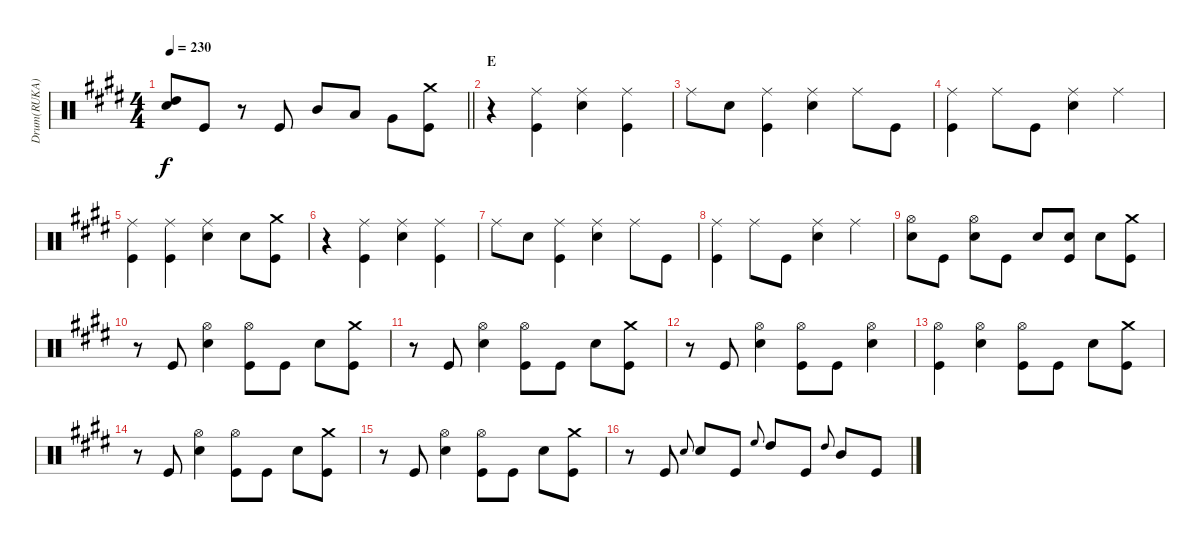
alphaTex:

\track ("Drum(RUKA)" "Drum(RUKA)") {instrument percussion}
\staff {score}
\articulation defaults
\ts (4 4)
\tempo 230
\clef neutral
\barLineRight lightlight
\ks e
("Electric Snare (hit)" "High Tom (hit)").8{dy f} "Kick (hit)".8 r.8 "Kick (hit)".8 "Mid Tom (hit)".8 "Low Tom (hit)".8 "Very Low Tom (hit)".8 ("Crash medium (hit)" "Kick (hit)").8 |
\section ("" "E")
r.4 ("Ride (middle)" "Kick (hit)").4 ("Ride (middle)" "Electric Snare (hit)").4 ("Ride (middle)" "Kick (hit)").4 |
"Ride (middle)".8 "Electric Snare (hit)".8 ("Ride (middle)" "Kick (hit)").4 ("Ride (middle)" "Electric Snare (hit)").4 "Ride (middle)".8 "Kick (hit)".8 |
("Ride (middle)" "Kick (hit)").4 "Ride (middle)".8 "Kick (hit)".8 ("Ride (middle)" "Electric Snare (hit)").4 "Ride (middle)".4 |
("Ride (middle)" "Kick (hit)").4 ("Ride (middle)" "Kick (hit)").4 ("Ride (middle)" "Electric Snare (hit)").4 "Electric Snare (hit)".8 ("Crash medium (hit)" "Kick (hit)").8 |
r.4 ("Ride (middle)" "Kick (hit)").4 ("Ride (middle)" "Electric Snare (hit)").4 ("Ride (middle)" "Kick (hit)").4 |
"Ride (middle)".8 "Electric Snare (hit)".8 ("Ride (middle)" "Kick (hit)").4 ("Ride (middle)" "Electric Snare (hit)").4 "Ride (middle)".8 "Kick (hit)".8 |
("Ride (middle)" "Kick (hit)").4 "Ride (middle)".8 "Kick (hit)".8 ("Ride (middle)" "Electric Snare (hit)").4 "Ride (middle)".4 |
("Hi-Hat (open)" "Electric Snare (hit)").8 "Kick (hit)".8 ("Hi-Hat (open)" "Electric Snare (hit)").8 "Kick (hit)".8 "Electric Snare (hit)".8 ("Electric Snare (hit)" "Kick (hit)").8 "Electric Snare (hit)".8 ("Crash medium (hit)" "Kick (hit)").8 |
r.8 "Kick (hit)".8 ("Hi-Hat (open)" "Electric Snare (hit)").4 ("Hi-Hat (open)" "Kick (hit)").8 "Kick (hit)".8 "Electric Snare (hit)".8 ("Crash medium (hit)" "Kick (hit)").8 |
r.8 "Kick (hit)".8 ("Hi-Hat (open)" "Electric Snare (hit)").4 ("Hi-Hat (open)" "Kick (hit)").8 "Kick (hit)".8 "Electric Snare (hit)".8 ("Crash medium (hit)" "Kick (hit)").8 |
r.8 "Kick (hit)".8 ("Hi-Hat (open)" "Electric Snare (hit)").4 ("Hi-Hat (open)" "Kick (hit)").8 "Kick (hit)".8 ("Hi-Hat (open)" "Electric Snare (hit)").4 |
("Hi-Hat (open)" "Kick (hit)").4 ("Hi-Hat (open)" "Electric Snare (hit)").4 ("Hi-Hat (open)" "Kick (hit)").8 "Kick (hit)".8 "Electric Snare (hit)".8 ("Crash medium (hit)" "Kick (hit)").8 |
r.8 "Kick (hit)".8 ("Hi-Hat (open)" "Electric Snare (hit)").4 ("Hi-Hat (open)" "Kick (hit)").8 "Kick (hit)".8 "Electric Snare (hit)".8 ("Crash medium (hit)" "Kick (hit)").8 |
r.8 "Kick (hit)".8 ("Hi-Hat (open)" "Electric Snare (hit)").4 ("Hi-Hat (open)" "Kick (hit)").8 "Kick (hit)".8 "Electric Snare (hit)".8 ("Crash medium (hit)" "Kick (hit)").8 |
r.8 "Kick (hit)".8 "Electric Snare (hit)".8{gr onbeat} "Electric Snare (hit)".8 "Kick (hit)".8 "High Floor Tom (hit)".8{gr onbeat} "High Tom (hit)".8 "Kick (hit)".8 "High Tom (hit)".8{gr onbeat} "Mid Tom (hit)".8 "Kick (hit)".8
